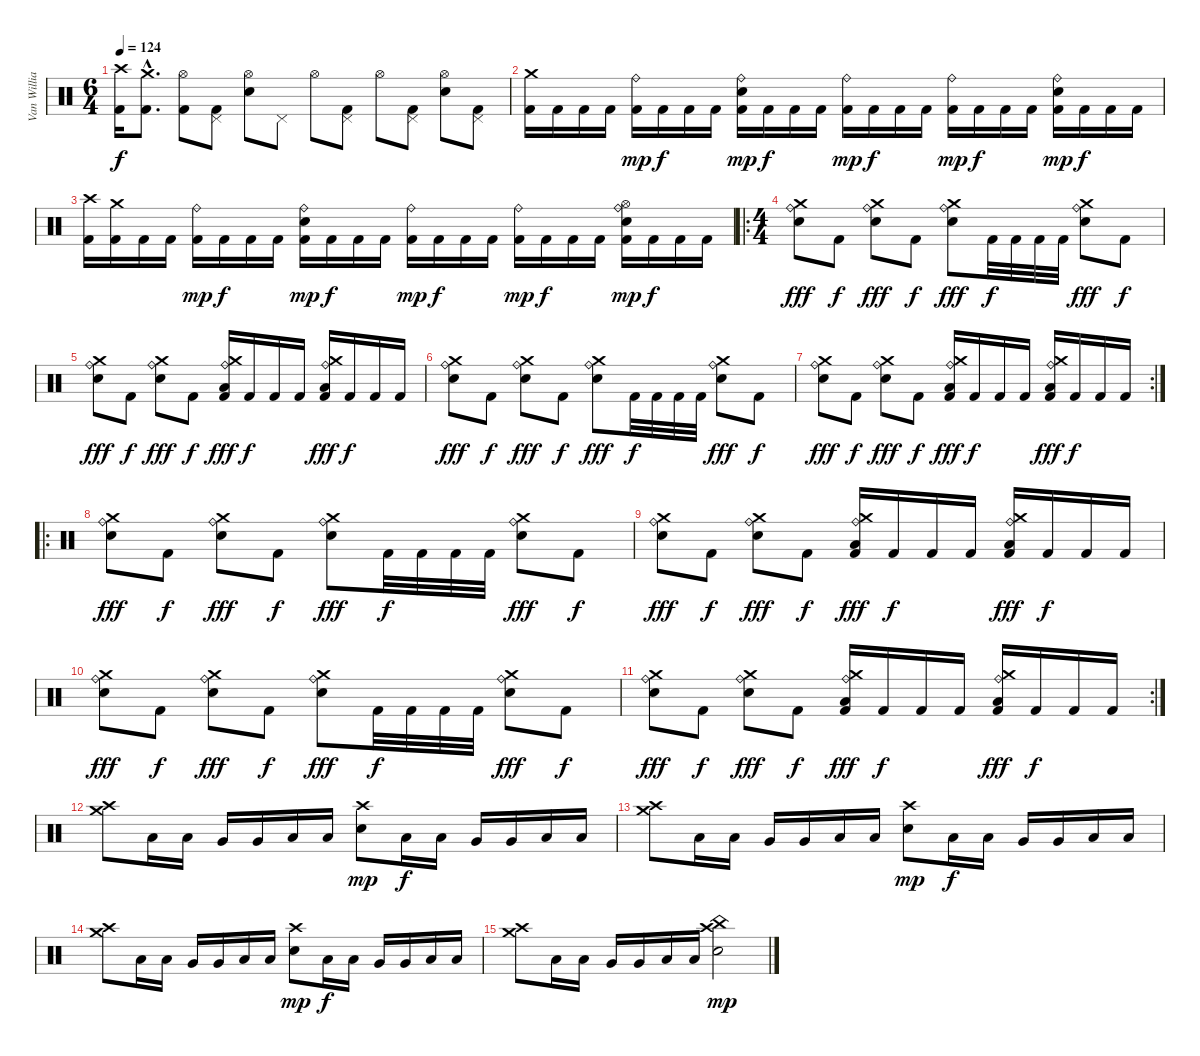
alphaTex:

\track ("Van Williams" "Van Willia") {instrument percussion}
\staff {score}
\articulation defaults
\ts (6 4)
\tempo 124
\clef neutral
\ks c
("Crash high (hit)" "Kick (hit) 2").16{dy f} ("Crash medium (hit)"{hac} "Kick (hit) 2"{hac}).8{d} ("Hi-Hat (open)" "Kick (hit) 2").8 ("Pedal Hi-Hat (hit)" "Kick (hit) 2").8 ("Hi-Hat (open)" "Electric Snare (hit)").8 "Pedal Hi-Hat (hit)".8 "Hi-Hat (open)".8 ("Pedal Hi-Hat (hit)" "Kick (hit) 2").8 "Hi-Hat (open)".8 ("Pedal Hi-Hat (hit)" "Kick (hit) 2").8 ("Hi-Hat (open)" "Electric Snare (hit)").8 ("Pedal Hi-Hat (hit)" "Kick (hit) 2").8 |
("Crash medium (hit)" "Kick (hit) 2").16 "Kick (hit) 2".16 "Kick (hit) 2".16 "Kick (hit) 2".16 ("Ride (bell)" "Kick (hit) 2").16{dy mp} "Kick (hit) 2".16{dy f} "Kick (hit) 2".16 "Kick (hit) 2".16 ("Ride (bell)" "Electric Snare (hit)" "Kick (hit) 2").16{dy mp} "Kick (hit) 2".16{dy f} "Kick (hit) 2".16 "Kick (hit) 2".16 ("Ride (bell)" "Kick (hit) 2").16{dy mp} "Kick (hit) 2".16{dy f} "Kick (hit) 2".16 "Kick (hit) 2".16 ("Ride (bell)" "Kick (hit) 2").16{dy mp} "Kick (hit) 2".16{dy f} "Kick (hit) 2".16 "Kick (hit) 2".16 ("Ride (bell)" "Electric Snare (hit)" "Kick (hit) 2").16{dy mp} "Kick (hit) 2".16{dy f} "Kick (hit) 2".16 "Kick (hit) 2".16 |
("Crash high (hit)" "Kick (hit) 2").16 ("Crash medium (hit)" "Kick (hit) 2").16 "Kick (hit) 2".16 "Kick (hit) 2".16 ("Ride (bell)" "Kick (hit) 2").16{dy mp} "Kick (hit) 2".16{dy f} "Kick (hit) 2".16 "Kick (hit) 2".16 ("Ride (bell)" "Electric Snare (hit)" "Kick (hit) 2").16{dy mp} "Kick (hit) 2".16{dy f} "Kick (hit) 2".16 "Kick (hit) 2".16 ("Ride (bell)" "Kick (hit) 2").16{dy mp} "Kick (hit) 2".16{dy f} "Kick (hit) 2".16 "Kick (hit) 2".16 ("Ride (bell)" "Kick (hit) 2").16{dy mp} "Kick (hit) 2".16{dy f} "Kick (hit) 2".16 "Kick (hit) 2".16 ("Ride (bell)" "Hi-Hat (open)" "Electric Snare (hit)" "Kick (hit) 2").16{dy mp} "Kick (hit) 2".16{dy f} "Kick (hit) 2".16 "Kick (hit) 2".16 |
\ro
\ts (4 4)
("Crash medium (hit)" "Ride (bell)" "Electric Snare (hit)").8{dy fff} "Kick (hit) 2".8{dy f} ("Crash medium (hit)" "Ride (bell)" "Electric Snare (hit)").8{dy fff} "Kick (hit) 2".8{dy f} ("Crash medium (hit)" "Ride (bell)" "Electric Snare (hit)").8{dy fff} "Kick (hit) 2".32{dy f} "Kick (hit) 2".32 "Kick (hit) 2".32 "Kick (hit) 2".32 ("Crash medium (hit)" "Ride (bell)" "Electric Snare (hit)").8{dy fff} "Kick (hit) 2".8{dy f} |
("Crash medium (hit)" "Ride (bell)" "Electric Snare (hit)").8{dy fff} "Kick (hit) 2".8{dy f} ("Crash medium (hit)" "Ride (bell)" "Electric Snare (hit)").8{dy fff} "Kick (hit) 2".8{dy f} ("Crash medium (hit)" "Ride (bell)" "Low Floor Tom (hit)" "Kick (hit) 2").16{dy fff} "Kick (hit) 2".16{dy f} "Kick (hit) 2".16 "Kick (hit) 2".16 ("Crash medium (hit)" "Ride (bell)" "Low Floor Tom (hit)" "Kick (hit) 2").16{dy fff} "Kick (hit) 2".16{dy f} "Kick (hit) 2".16 "Kick (hit) 2".16 |
("Crash medium (hit)" "Ride (bell)" "Electric Snare (hit)").8{dy fff} "Kick (hit) 2".8{dy f} ("Crash medium (hit)" "Ride (bell)" "Electric Snare (hit)").8{dy fff} "Kick (hit) 2".8{dy f} ("Crash medium (hit)" "Ride (bell)" "Electric Snare (hit)").8{dy fff} "Kick (hit) 2".32{dy f} "Kick (hit) 2".32 "Kick (hit) 2".32 "Kick (hit) 2".32 ("Crash medium (hit)" "Ride (bell)" "Electric Snare (hit)").8{dy fff} "Kick (hit) 2".8{dy f} |
\rc 2
("Crash medium (hit)" "Ride (bell)" "Electric Snare (hit)").8{dy fff} "Kick (hit) 2".8{dy f} ("Crash medium (hit)" "Ride (bell)" "Electric Snare (hit)").8{dy fff} "Kick (hit) 2".8{dy f} ("Crash medium (hit)" "Ride (bell)" "Low Floor Tom (hit)" "Kick (hit) 2").16{dy fff} "Kick (hit) 2".16{dy f} "Kick (hit) 2".16 "Kick (hit) 2".16 ("Crash medium (hit)" "Ride (bell)" "Low Floor Tom (hit)" "Kick (hit) 2").16{dy fff} "Kick (hit) 2".16{dy f} "Kick (hit) 2".16 "Kick (hit) 2".16 |
\ro
("Crash medium (hit)" "Ride (bell)" "Electric Snare (hit)").8{dy fff} "Kick (hit) 2".8{dy f} ("Crash medium (hit)" "Ride (bell)" "Electric Snare (hit)").8{dy fff} "Kick (hit) 2".8{dy f} ("Crash medium (hit)" "Ride (bell)" "Electric Snare (hit)").8{dy fff} "Kick (hit) 2".32{dy f} "Kick (hit) 2".32 "Kick (hit) 2".32 "Kick (hit) 2".32 ("Crash medium (hit)" "Ride (bell)" "Electric Snare (hit)").8{dy fff} "Kick (hit) 2".8{dy f} |
("Crash medium (hit)" "Ride (bell)" "Electric Snare (hit)").8{dy fff} "Kick (hit) 2".8{dy f} ("Crash medium (hit)" "Ride (bell)" "Electric Snare (hit)").8{dy fff} "Kick (hit) 2".8{dy f} ("Crash medium (hit)" "Ride (bell)" "Low Floor Tom (hit)" "Kick (hit) 2").16{dy fff} "Kick (hit) 2".16{dy f} "Kick (hit) 2".16 "Kick (hit) 2".16 ("Crash medium (hit)" "Ride (bell)" "Low Floor Tom (hit)" "Kick (hit) 2").16{dy fff} "Kick (hit) 2".16{dy f} "Kick (hit) 2".16 "Kick (hit) 2".16 |
("Crash medium (hit)" "Ride (bell)" "Electric Snare (hit)").8{dy fff} "Kick (hit) 2".8{dy f} ("Crash medium (hit)" "Ride (bell)" "Electric Snare (hit)").8{dy fff} "Kick (hit) 2".8{dy f} ("Crash medium (hit)" "Ride (bell)" "Electric Snare (hit)").8{dy fff} "Kick (hit) 2".32{dy f} "Kick (hit) 2".32 "Kick (hit) 2".32 "Kick (hit) 2".32 ("Crash medium (hit)" "Ride (bell)" "Electric Snare (hit)").8{dy fff} "Kick (hit) 2".8{dy f} |
\rc 2
("Crash medium (hit)" "Ride (bell)" "Electric Snare (hit)").8{dy fff} "Kick (hit) 2".8{dy f} ("Crash medium (hit)" "Ride (bell)" "Electric Snare (hit)").8{dy fff} "Kick (hit) 2".8{dy f} ("Crash medium (hit)" "Ride (bell)" "Low Floor Tom (hit)" "Kick (hit) 2").16{dy fff} "Kick (hit) 2".16{dy f} "Kick (hit) 2".16 "Kick (hit) 2".16 ("Crash medium (hit)" "Ride (bell)" "Low Floor Tom (hit)" "Kick (hit) 2").16{dy fff} "Kick (hit) 2".16{dy f} "Kick (hit) 2".16 "Kick (hit) 2".16 |
("Crash medium (hit)" "Crash high (hit)").8 "Low Tom (hit)".16 "Low Tom (hit)".16 "Very Low Tom (hit)".16 "Very Low Tom (hit)".16 "Low Floor Tom (hit)".16 "Low Floor Tom (hit)".16 ("Crash high (hit)" "Electric Snare (hit)").8{dy mp} "Low Tom (hit)".16{dy f} "Low Tom (hit)".16 "Very Low Tom (hit)".16 "Very Low Tom (hit)".16 "Low Floor Tom (hit)".16 "Low Floor Tom (hit)".16 |
("Crash medium (hit)" "Crash high (hit)").8 "Low Tom (hit)".16 "Low Tom (hit)".16 "Very Low Tom (hit)".16 "Very Low Tom (hit)".16 "Low Floor Tom (hit)".16 "Low Floor Tom (hit)".16 ("Crash high (hit)" "Electric Snare (hit)").8{dy mp} "Low Tom (hit)".16{dy f} "Low Tom (hit)".16 "Very Low Tom (hit)".16 "Very Low Tom (hit)".16 "Low Floor Tom (hit)".16 "Low Floor Tom (hit)".16 |
("Crash medium (hit)" "Crash high (hit)").8 "Low Tom (hit)".16 "Low Tom (hit)".16 "Very Low Tom (hit)".16 "Very Low Tom (hit)".16 "Low Floor Tom (hit)".16 "Low Floor Tom (hit)".16 ("Crash high (hit)" "Electric Snare (hit)").8{dy mp} "Low Tom (hit)".16{dy f} "Low Tom (hit)".16 "Very Low Tom (hit)".16 "Very Low Tom (hit)".16 "Low Floor Tom (hit)".16 "Low Floor Tom (hit)".16 |
("Crash medium (hit)" "Crash high (hit)").8 "Low Tom (hit)".16 "Low Tom (hit)".16 "Very Low Tom (hit)".16 "Very Low Tom (hit)".16 "Low Floor Tom (hit)".16 "Low Floor Tom (hit)".16 ("China (hit)" "Crash high (hit)" "Electric Snare (hit)").2{dy mp}
